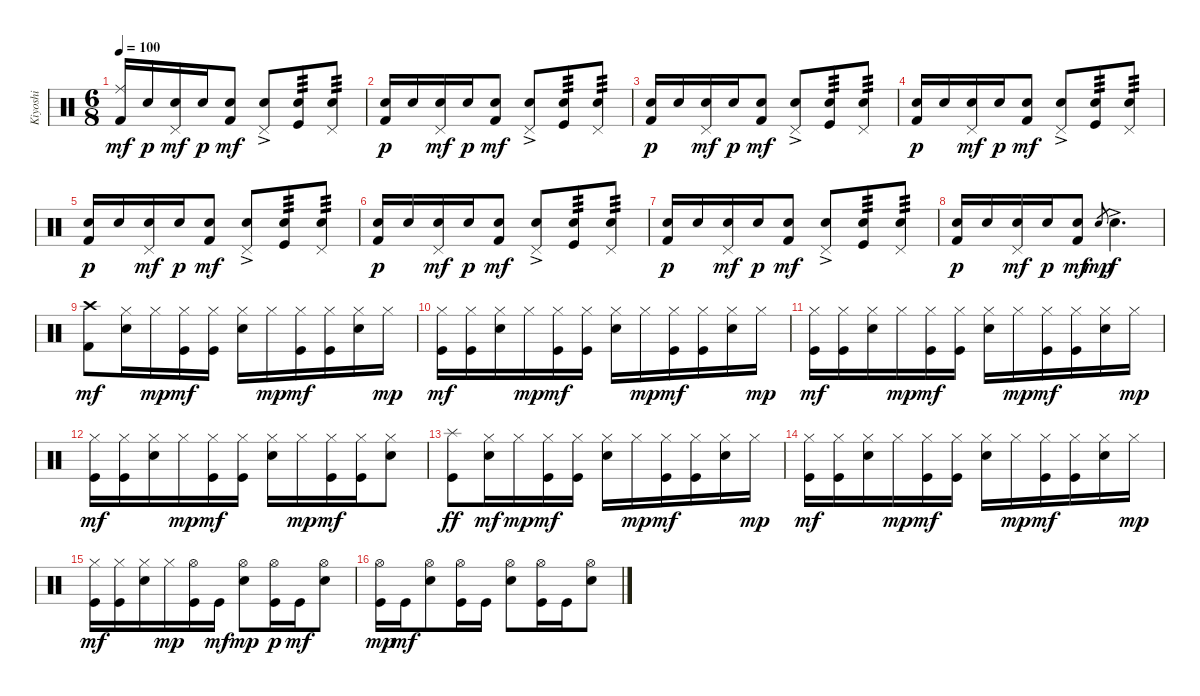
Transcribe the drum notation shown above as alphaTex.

\track ("Kiyoshi" "Kiyoshi") {instrument percussion}
\staff {score}
\articulation defaults
\ts (6 8)
\tempo 100
\clef neutral
\ks c
("Kick (hit) 2" "Ride (middle)").16{dy mf} "Electric Snare (hit)".16{dy p} ("Electric Snare (hit)" "Pedal Hi-Hat (hit)").16{dy mf} "Electric Snare (hit)".16{dy p} ("Electric Snare (hit)" "Kick (hit) 2").8{dy mf} ("Electric Snare (hit)"{ac} "Pedal Hi-Hat (hit)").8 ("Electric Snare (hit)" "Kick (hit)").8{tp 3} ("Electric Snare (hit)" "Pedal Hi-Hat (hit)").8{tp 3} |
("Kick (hit) 2" "Electric Snare (hit)").16{dy p} "Electric Snare (hit)".16 ("Electric Snare (hit)" "Pedal Hi-Hat (hit)").16{dy mf} "Electric Snare (hit)".16{dy p} ("Electric Snare (hit)" "Kick (hit) 2").8{dy mf} ("Electric Snare (hit)"{ac} "Pedal Hi-Hat (hit)").8 ("Electric Snare (hit)" "Kick (hit)").8{tp 3} ("Electric Snare (hit)" "Pedal Hi-Hat (hit)").8{tp 3} |
("Kick (hit) 2" "Electric Snare (hit)").16{dy p} "Electric Snare (hit)".16 ("Electric Snare (hit)" "Pedal Hi-Hat (hit)").16{dy mf} "Electric Snare (hit)".16{dy p} ("Electric Snare (hit)" "Kick (hit) 2").8{dy mf} ("Electric Snare (hit)"{ac} "Pedal Hi-Hat (hit)").8 ("Electric Snare (hit)" "Kick (hit)").8{tp 3} ("Electric Snare (hit)" "Pedal Hi-Hat (hit)").8{tp 3} |
("Kick (hit) 2" "Electric Snare (hit)").16{dy p} "Electric Snare (hit)".16 ("Electric Snare (hit)" "Pedal Hi-Hat (hit)").16{dy mf} "Electric Snare (hit)".16{dy p} ("Electric Snare (hit)" "Kick (hit) 2").8{dy mf} ("Electric Snare (hit)"{ac} "Pedal Hi-Hat (hit)").8 ("Electric Snare (hit)" "Kick (hit)").8{tp 3} ("Electric Snare (hit)" "Pedal Hi-Hat (hit)").8{tp 3} |
("Kick (hit) 2" "Electric Snare (hit)").16{dy p} "Electric Snare (hit)".16 ("Electric Snare (hit)" "Pedal Hi-Hat (hit)").16{dy mf} "Electric Snare (hit)".16{dy p} ("Electric Snare (hit)" "Kick (hit) 2").8{dy mf} ("Electric Snare (hit)"{ac} "Pedal Hi-Hat (hit)").8 ("Electric Snare (hit)" "Kick (hit)").8{tp 3} ("Electric Snare (hit)" "Pedal Hi-Hat (hit)").8{tp 3} |
("Kick (hit) 2" "Electric Snare (hit)").16{dy p} "Electric Snare (hit)".16 ("Electric Snare (hit)" "Pedal Hi-Hat (hit)").16{dy mf} "Electric Snare (hit)".16{dy p} ("Electric Snare (hit)" "Kick (hit) 2").8{dy mf} ("Electric Snare (hit)"{ac} "Pedal Hi-Hat (hit)").8 ("Electric Snare (hit)" "Kick (hit)").8{tp 3} ("Electric Snare (hit)" "Pedal Hi-Hat (hit)").8{tp 3} |
("Kick (hit) 2" "Electric Snare (hit)").16{dy p} "Electric Snare (hit)".16 ("Electric Snare (hit)" "Pedal Hi-Hat (hit)").16{dy mf} "Electric Snare (hit)".16{dy p} ("Electric Snare (hit)" "Kick (hit) 2").8{dy mf} ("Electric Snare (hit)"{ac} "Pedal Hi-Hat (hit)").8 ("Electric Snare (hit)" "Kick (hit)").8{tp 3} ("Electric Snare (hit)" "Pedal Hi-Hat (hit)").8{tp 3} |
("Kick (hit) 2" "Electric Snare (hit)").16{dy p} "Electric Snare (hit)".16 ("Electric Snare (hit)" "Pedal Hi-Hat (hit)").16{dy mf} "Electric Snare (hit)".16{dy p} ("Electric Snare (hit)" "Kick (hit) 2").8{dy mf} "Electric Snare (hit)".8{gr dy mp} "Electric Snare (hit)"{ac}.4{d dy f} |
("Kick (hit) 2" "Crash high (hit)").8{dy mf} ("Electric Snare (hit)" "Hi-Hat (closed)").16 "Hi-Hat (closed)".16{dy mp} ("Hi-Hat (closed)" "Kick (hit)").16{dy mf} ("Hi-Hat (closed)" "Kick (hit)").16 ("Hi-Hat (closed)" "Electric Snare (hit)").16 "Hi-Hat (closed)".16{dy mp} ("Hi-Hat (closed)" "Kick (hit)").16{dy mf} ("Hi-Hat (closed)" "Kick (hit)").16 ("Hi-Hat (closed)" "Electric Snare (hit)").16 "Hi-Hat (closed)".16{dy mp} |
("Hi-Hat (closed)" "Kick (hit)").16{dy mf} ("Hi-Hat (closed)" "Kick (hit)").16 ("Hi-Hat (closed)" "Electric Snare (hit)").16 "Hi-Hat (closed)".16{dy mp} ("Hi-Hat (closed)" "Kick (hit)").16{dy mf} ("Hi-Hat (closed)" "Kick (hit)").16 ("Hi-Hat (closed)" "Electric Snare (hit)").16 "Hi-Hat (closed)".16{dy mp} ("Hi-Hat (closed)" "Kick (hit)").16{dy mf} ("Hi-Hat (closed)" "Kick (hit)").16 ("Hi-Hat (closed)" "Electric Snare (hit)").16 "Hi-Hat (closed)".16{dy mp} |
("Hi-Hat (closed)" "Kick (hit)").16{dy mf} ("Hi-Hat (closed)" "Kick (hit)").16 ("Hi-Hat (closed)" "Electric Snare (hit)").16 "Hi-Hat (closed)".16{dy mp} ("Hi-Hat (closed)" "Kick (hit)").16{dy mf} ("Hi-Hat (closed)" "Kick (hit)").16 ("Hi-Hat (closed)" "Electric Snare (hit)").16 "Hi-Hat (closed)".16{dy mp} ("Hi-Hat (closed)" "Kick (hit)").16{dy mf} ("Hi-Hat (closed)" "Kick (hit)").16 ("Hi-Hat (closed)" "Electric Snare (hit)").16 "Hi-Hat (closed)".16{dy mp} |
("Hi-Hat (closed)" "Kick (hit)").16{dy mf} ("Hi-Hat (closed)" "Kick (hit)").16 ("Hi-Hat (closed)" "Electric Snare (hit)").16 "Hi-Hat (closed)".16{dy mp} ("Hi-Hat (closed)" "Kick (hit)").16{dy mf} ("Hi-Hat (closed)" "Kick (hit)").16 ("Hi-Hat (closed)" "Electric Snare (hit)").16 "Hi-Hat (closed)".16{dy mp} ("Hi-Hat (closed)" "Kick (hit)").16{dy mf} ("Hi-Hat (closed)" "Kick (hit)").16 ("Hi-Hat (closed)" "Electric Snare (hit)").8 |
("Kick (hit)" "Splash (hit)").8{dy ff} ("Electric Snare (hit)" "Hi-Hat (closed)").16{dy mf} "Hi-Hat (closed)".16{dy mp} ("Hi-Hat (closed)" "Kick (hit)").16{dy mf} ("Hi-Hat (closed)" "Kick (hit)").16 ("Hi-Hat (closed)" "Electric Snare (hit)").16 "Hi-Hat (closed)".16{dy mp} ("Hi-Hat (closed)" "Kick (hit)").16{dy mf} ("Hi-Hat (closed)" "Kick (hit)").16 ("Hi-Hat (closed)" "Electric Snare (hit)").16 "Hi-Hat (closed)".16{dy mp} |
("Hi-Hat (closed)" "Kick (hit)").16{dy mf} ("Hi-Hat (closed)" "Kick (hit)").16 ("Hi-Hat (closed)" "Electric Snare (hit)").16 "Hi-Hat (closed)".16{dy mp} ("Hi-Hat (closed)" "Kick (hit)").16{dy mf} ("Hi-Hat (closed)" "Kick (hit)").16 ("Hi-Hat (closed)" "Electric Snare (hit)").16 "Hi-Hat (closed)".16{dy mp} ("Hi-Hat (closed)" "Kick (hit)").16{dy mf} ("Hi-Hat (closed)" "Kick (hit)").16 ("Hi-Hat (closed)" "Electric Snare (hit)").16 "Hi-Hat (closed)".16{dy mp} |
("Hi-Hat (closed)" "Kick (hit)").16{dy mf} ("Hi-Hat (closed)" "Kick (hit)").16 ("Hi-Hat (closed)" "Electric Snare (hit)").16 "Hi-Hat (closed)".16{dy mp} ("Kick (hit)" "Hi-Hat (open)").16 "Kick (hit)".16{dy mf} ("Electric Snare (hit)" "Hi-Hat (open)").8{dy mp} ("Kick (hit)" "Hi-Hat (open)").16{dy p} "Kick (hit)".16{dy mf} ("Hi-Hat (open)" "Electric Snare (hit)").8 |
("Kick (hit)" "Hi-Hat (open)").16{dy mp} "Kick (hit)".16{dy mf} ("Hi-Hat (open)" "Electric Snare (hit)").8 ("Kick (hit)" "Hi-Hat (open)").16 "Kick (hit)".16 ("Hi-Hat (open)" "Electric Snare (hit)").8 ("Kick (hit)" "Hi-Hat (open)").16 "Kick (hit)".16 ("Hi-Hat (open)" "Electric Snare (hit)").8
